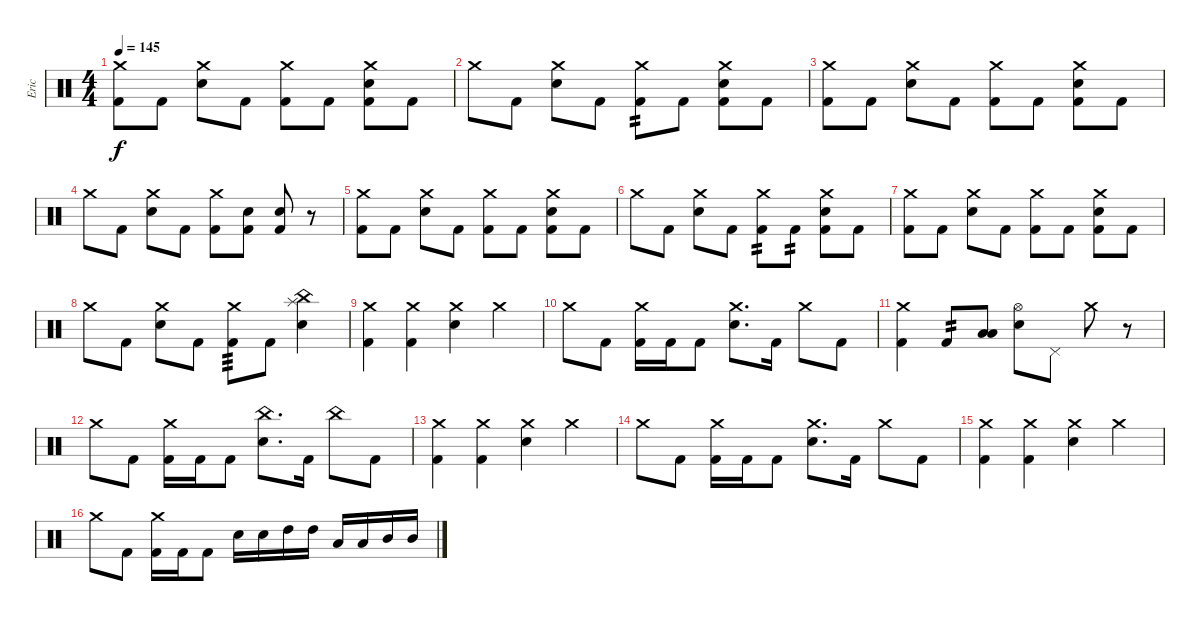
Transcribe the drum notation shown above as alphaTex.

\track ("Eric" "Eric") {instrument percussion}
\staff {score}
\articulation defaults
\ts (4 4)
\tempo 145
\clef neutral
\ks c
("Crash medium (hit)" "Kick (hit) 2").8{dy f} "Kick (hit) 2".8 ("Crash medium (hit)" "Electric Snare (hit)").8 "Kick (hit) 2".8 ("Crash medium (hit)" "Kick (hit) 2").8 "Kick (hit) 2".8 ("Crash medium (hit)" "Electric Snare (hit)" "Kick (hit) 2").8 "Kick (hit) 2".8 |
"Crash medium (hit)".8 "Kick (hit) 2".8 ("Crash medium (hit)" "Electric Snare (hit)").8 "Kick (hit) 2".8 ("Crash medium (hit)" "Kick (hit) 2").8{tp 2} "Kick (hit) 2".8 ("Crash medium (hit)" "Electric Snare (hit)" "Kick (hit) 2").8 "Kick (hit) 2".8 |
("Crash medium (hit)" "Kick (hit) 2").8 "Kick (hit) 2".8 ("Crash medium (hit)" "Electric Snare (hit)").8 "Kick (hit) 2".8 ("Crash medium (hit)" "Kick (hit) 2").8 "Kick (hit) 2".8 ("Crash medium (hit)" "Electric Snare (hit)" "Kick (hit) 2").8 "Kick (hit) 2".8 |
"Crash medium (hit)".8 "Kick (hit) 2".8 ("Crash medium (hit)" "Electric Snare (hit)").8 "Kick (hit) 2".8 ("Crash medium (hit)" "Kick (hit) 2").8 ("Electric Snare (hit)" "Kick (hit) 2").8 ("Electric Snare (hit)" "Kick (hit) 2").8 r.8 |
("Crash medium (hit)" "Kick (hit) 2").8 "Kick (hit) 2".8 ("Crash medium (hit)" "Electric Snare (hit)").8 "Kick (hit) 2".8 ("Crash medium (hit)" "Kick (hit) 2").8 "Kick (hit) 2".8 ("Crash medium (hit)" "Electric Snare (hit)" "Kick (hit) 2").8 "Kick (hit) 2".8 |
"Crash medium (hit)".8 "Kick (hit) 2".8 ("Crash medium (hit)" "Electric Snare (hit)").8 "Kick (hit) 2".8 ("Crash medium (hit)" "Kick (hit) 2").8{tp 2} "Kick (hit) 2".8{tp 2} ("Crash medium (hit)" "Electric Snare (hit)" "Kick (hit) 2").8 "Kick (hit) 2".8 |
("Crash medium (hit)" "Kick (hit) 2").8 "Kick (hit) 2".8 ("Crash medium (hit)" "Electric Snare (hit)").8 "Kick (hit) 2".8 ("Crash medium (hit)" "Kick (hit) 2").8 "Kick (hit) 2".8 ("Crash medium (hit)" "Electric Snare (hit)" "Kick (hit) 2").8 "Kick (hit) 2".8 |
"Crash medium (hit)".8 "Kick (hit) 2".8 ("Crash medium (hit)" "Electric Snare (hit)").8 "Kick (hit) 2".8 ("Crash medium (hit)" "Kick (hit) 2").8{tp 3} "Kick (hit) 2".8 ("Splash (hit)" "China (hit)" "Electric Snare (hit)").4 |
("Crash medium (hit)" "Kick (hit) 2").4 ("Crash medium (hit)" "Kick (hit) 2").4 ("Crash medium (hit)" "Electric Snare (hit)").4 "Crash medium (hit)".4 |
"Crash medium (hit)".8 "Kick (hit) 2".8 ("Crash medium (hit)" "Kick (hit) 2").16 "Kick (hit) 2".16 "Kick (hit) 2".8 ("Crash medium (hit)" "Electric Snare (hit)").8{d} "Kick (hit) 2".16 "Crash medium (hit)".8 "Kick (hit) 2".8 |
("Crash medium (hit)" "Kick (hit) 2").4 "Kick (hit) 2".8{tp 2} ("Low Floor Tom (hit)" "Low Tom (hit)").8 ("Hi-Hat (open)" "Electric Snare (hit)").8 "Pedal Hi-Hat (hit)".8 "Crash medium (hit)".8 r.8 |
"Crash medium (hit)".8 "Kick (hit) 2".8 ("Crash medium (hit)" "Kick (hit) 2").16 "Kick (hit) 2".16 "Kick (hit) 2".8 ("China (hit)" "Electric Snare (hit)").8{d} "Kick (hit) 2".16 "China (hit)".8 "Kick (hit) 2".8 |
("Crash medium (hit)" "Kick (hit) 2").4 ("Crash medium (hit)" "Kick (hit) 2").4 ("Crash medium (hit)" "Electric Snare (hit)").4 "Crash medium (hit)".4 |
"Crash medium (hit)".8 "Kick (hit) 2".8 ("Crash medium (hit)" "Kick (hit) 2").16 "Kick (hit) 2".16 "Kick (hit) 2".8 ("Crash medium (hit)" "Electric Snare (hit)").8{d} "Kick (hit) 2".16 "Crash medium (hit)".8 "Kick (hit) 2".8 |
("Crash medium (hit)" "Kick (hit) 2").4 ("Crash medium (hit)" "Kick (hit) 2").4 ("Crash medium (hit)" "Electric Snare (hit)").4 "Crash medium (hit)".4 |
"Crash medium (hit)".8 "Kick (hit) 2".8 ("Crash medium (hit)" "Kick (hit) 2").16 "Kick (hit) 2".16 "Kick (hit) 2".8 "Electric Snare (hit)".16 "Electric Snare (hit)".16 "High Tom (hit)".16 "High Tom (hit)".16 "Low Tom (hit)".16 "Low Tom (hit)".16 "Mid Tom (hit)".16 "Mid Tom (hit)".16
